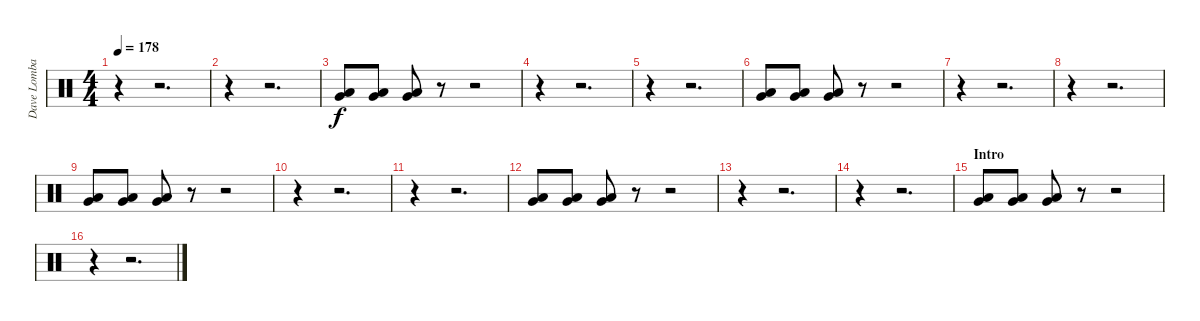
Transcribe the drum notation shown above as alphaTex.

\track ("Dave Lombardo" "Dave Lomba") {instrument percussion}
\staff {score}
\articulation defaults
\ts (4 4)
\tempo 178
\clef neutral
\ks c
r.4{dy f} r.2{d} |
r.4 r.2{d} |
("Low Floor Tom (hit)" "Very Low Tom (hit)").8 ("Low Floor Tom (hit)" "Very Low Tom (hit)").8 ("Low Floor Tom (hit)" "Very Low Tom (hit)").8 r.8 r.2 |
r.4 r.2{d} |
r.4 r.2{d} |
("Low Floor Tom (hit)" "Very Low Tom (hit)").8 ("Low Floor Tom (hit)" "Very Low Tom (hit)").8 ("Low Floor Tom (hit)" "Very Low Tom (hit)").8 r.8 r.2 |
r.4 r.2{d} |
r.4 r.2{d} |
("Low Floor Tom (hit)" "Very Low Tom (hit)").8 ("Low Floor Tom (hit)" "Very Low Tom (hit)").8 ("Low Floor Tom (hit)" "Very Low Tom (hit)").8 r.8 r.2 |
r.4 r.2{d} |
r.4 r.2{d} |
("Low Floor Tom (hit)" "Very Low Tom (hit)").8 ("Low Floor Tom (hit)" "Very Low Tom (hit)").8 ("Low Floor Tom (hit)" "Very Low Tom (hit)").8 r.8 r.2 |
r.4 r.2{d} |
r.4 r.2{d} |
\section ("" "Intro")
("Low Floor Tom (hit)" "Very Low Tom (hit)").8 ("Low Floor Tom (hit)" "Very Low Tom (hit)").8 ("Low Floor Tom (hit)" "Very Low Tom (hit)").8 r.8 r.2 |
r.4 r.2{d}
